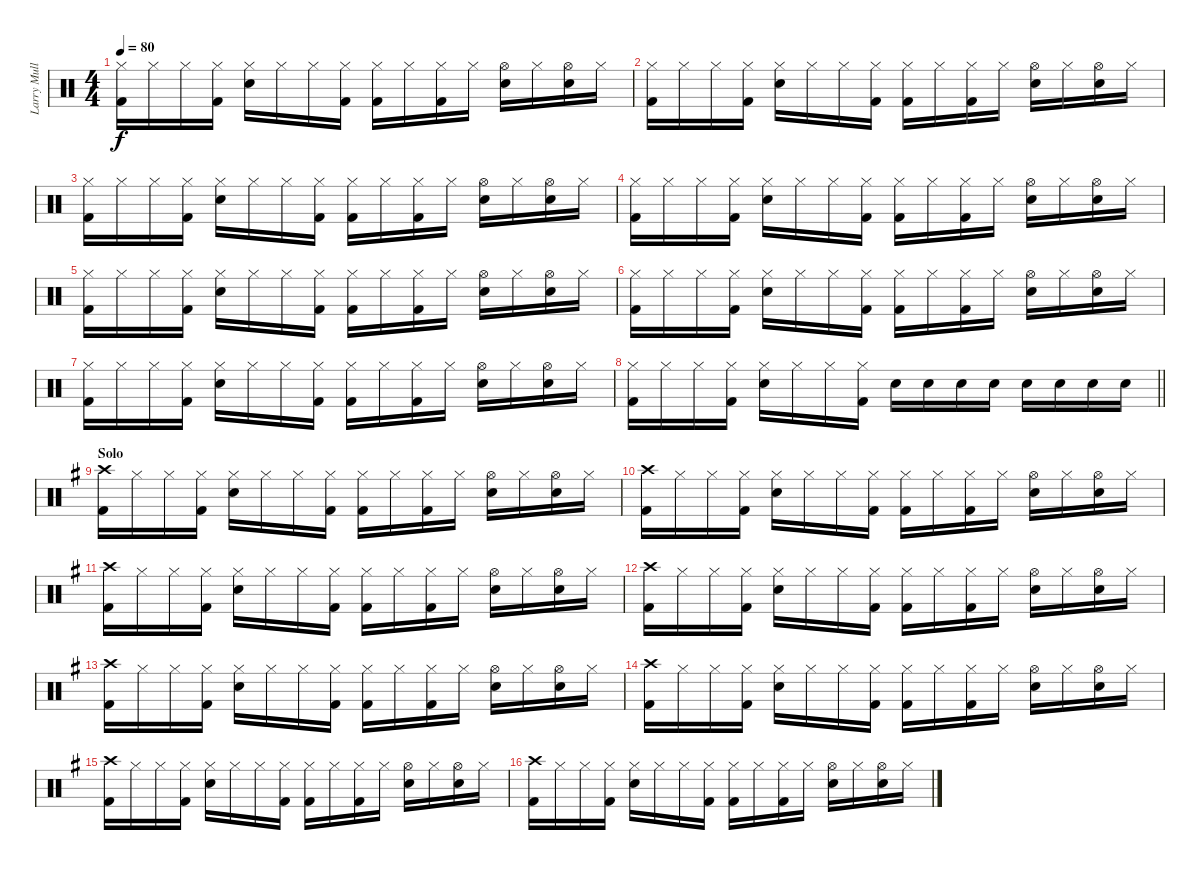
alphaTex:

\track ("Larry Mullen Jr" "Larry Mull") {instrument percussion}
\staff {score}
\articulation defaults
\ts (4 4)
\tempo 80
\clef neutral
\ks c
("Hi-Hat (closed)" "Kick (hit) 2").16{dy f} "Hi-Hat (closed)".16 "Hi-Hat (closed)".16 ("Hi-Hat (closed)" "Kick (hit) 2").16 ("Hi-Hat (closed)" "Snare (hit) 2").16 "Hi-Hat (closed)".16 "Hi-Hat (closed)".16 ("Hi-Hat (closed)" "Kick (hit) 2").16 ("Hi-Hat (closed)" "Kick (hit) 2").16 "Hi-Hat (closed)".16 ("Hi-Hat (closed)" "Kick (hit) 2").16 "Hi-Hat (closed)".16 ("Hi-Hat (open)" "Snare (hit) 2").16 "Hi-Hat (closed)".16 ("Hi-Hat (open)" "Snare (hit) 2").16 "Hi-Hat (closed)".16 |
("Hi-Hat (closed)" "Kick (hit) 2").16 "Hi-Hat (closed)".16 "Hi-Hat (closed)".16 ("Hi-Hat (closed)" "Kick (hit) 2").16 ("Hi-Hat (closed)" "Snare (hit) 2").16 "Hi-Hat (closed)".16 "Hi-Hat (closed)".16 ("Hi-Hat (closed)" "Kick (hit) 2").16 ("Hi-Hat (closed)" "Kick (hit) 2").16 "Hi-Hat (closed)".16 ("Hi-Hat (closed)" "Kick (hit) 2").16 "Hi-Hat (closed)".16 ("Hi-Hat (open)" "Snare (hit) 2").16 "Hi-Hat (closed)".16 ("Hi-Hat (open)" "Snare (hit) 2").16 "Hi-Hat (closed)".16 |
("Hi-Hat (closed)" "Kick (hit) 2").16 "Hi-Hat (closed)".16 "Hi-Hat (closed)".16 ("Hi-Hat (closed)" "Kick (hit) 2").16 ("Hi-Hat (closed)" "Snare (hit) 2").16 "Hi-Hat (closed)".16 "Hi-Hat (closed)".16 ("Hi-Hat (closed)" "Kick (hit) 2").16 ("Hi-Hat (closed)" "Kick (hit) 2").16 "Hi-Hat (closed)".16 ("Hi-Hat (closed)" "Kick (hit) 2").16 "Hi-Hat (closed)".16 ("Hi-Hat (open)" "Snare (hit) 2").16 "Hi-Hat (closed)".16 ("Hi-Hat (open)" "Snare (hit) 2").16 "Hi-Hat (closed)".16 |
("Hi-Hat (closed)" "Kick (hit) 2").16 "Hi-Hat (closed)".16 "Hi-Hat (closed)".16 ("Hi-Hat (closed)" "Kick (hit) 2").16 ("Hi-Hat (closed)" "Snare (hit) 2").16 "Hi-Hat (closed)".16 "Hi-Hat (closed)".16 ("Hi-Hat (closed)" "Kick (hit) 2").16 ("Hi-Hat (closed)" "Kick (hit) 2").16 "Hi-Hat (closed)".16 ("Hi-Hat (closed)" "Kick (hit) 2").16 "Hi-Hat (closed)".16 ("Hi-Hat (open)" "Snare (hit) 2").16 "Hi-Hat (closed)".16 ("Hi-Hat (open)" "Snare (hit) 2").16 "Hi-Hat (closed)".16 |
("Hi-Hat (closed)" "Kick (hit) 2").16 "Hi-Hat (closed)".16 "Hi-Hat (closed)".16 ("Hi-Hat (closed)" "Kick (hit) 2").16 ("Hi-Hat (closed)" "Snare (hit) 2").16 "Hi-Hat (closed)".16 "Hi-Hat (closed)".16 ("Hi-Hat (closed)" "Kick (hit) 2").16 ("Hi-Hat (closed)" "Kick (hit) 2").16 "Hi-Hat (closed)".16 ("Hi-Hat (closed)" "Kick (hit) 2").16 "Hi-Hat (closed)".16 ("Hi-Hat (open)" "Snare (hit) 2").16 "Hi-Hat (closed)".16 ("Hi-Hat (open)" "Snare (hit) 2").16 "Hi-Hat (closed)".16 |
("Hi-Hat (closed)" "Kick (hit) 2").16 "Hi-Hat (closed)".16 "Hi-Hat (closed)".16 ("Hi-Hat (closed)" "Kick (hit) 2").16 ("Hi-Hat (closed)" "Snare (hit) 2").16 "Hi-Hat (closed)".16 "Hi-Hat (closed)".16 ("Hi-Hat (closed)" "Kick (hit) 2").16 ("Hi-Hat (closed)" "Kick (hit) 2").16 "Hi-Hat (closed)".16 ("Hi-Hat (closed)" "Kick (hit) 2").16 "Hi-Hat (closed)".16 ("Hi-Hat (open)" "Snare (hit) 2").16 "Hi-Hat (closed)".16 ("Hi-Hat (open)" "Snare (hit) 2").16 "Hi-Hat (closed)".16 |
("Hi-Hat (closed)" "Kick (hit) 2").16 "Hi-Hat (closed)".16 "Hi-Hat (closed)".16 ("Hi-Hat (closed)" "Kick (hit) 2").16 ("Hi-Hat (closed)" "Snare (hit) 2").16 "Hi-Hat (closed)".16 "Hi-Hat (closed)".16 ("Hi-Hat (closed)" "Kick (hit) 2").16 ("Hi-Hat (closed)" "Kick (hit) 2").16 "Hi-Hat (closed)".16 ("Hi-Hat (closed)" "Kick (hit) 2").16 "Hi-Hat (closed)".16 ("Hi-Hat (open)" "Snare (hit) 2").16 "Hi-Hat (closed)".16 ("Hi-Hat (open)" "Snare (hit) 2").16 "Hi-Hat (closed)".16 |
\barLineRight lightlight
("Hi-Hat (closed)" "Kick (hit) 2").16 "Hi-Hat (closed)".16 "Hi-Hat (closed)".16 ("Hi-Hat (closed)" "Kick (hit) 2").16 ("Hi-Hat (closed)" "Snare (hit) 2").16 "Hi-Hat (closed)".16 "Hi-Hat (closed)".16 ("Hi-Hat (closed)" "Kick (hit) 2").16 "Snare (hit) 2".16 "Snare (hit) 2".16 "Snare (hit) 2".16 "Snare (hit) 2".16 "Snare (hit) 2".16 "Snare (hit) 2".16 "Snare (hit) 2".16 "Snare (hit) 2".16 |
\section ("" "Solo")
\ks g
("Crash high (hit)" "Kick (hit) 2").16 "Hi-Hat (closed)".16 "Hi-Hat (closed)".16 ("Hi-Hat (closed)" "Kick (hit) 2").16 ("Hi-Hat (closed)" "Snare (hit) 2").16 "Hi-Hat (closed)".16 "Hi-Hat (closed)".16 ("Hi-Hat (closed)" "Kick (hit) 2").16 ("Hi-Hat (closed)" "Kick (hit) 2").16 "Hi-Hat (closed)".16 ("Hi-Hat (closed)" "Kick (hit) 2").16 "Hi-Hat (closed)".16 ("Hi-Hat (open)" "Snare (hit) 2").16 "Hi-Hat (closed)".16 ("Hi-Hat (open)" "Snare (hit) 2").16 "Hi-Hat (closed)".16 |
("Crash high (hit)" "Kick (hit) 2").16 "Hi-Hat (closed)".16 "Hi-Hat (closed)".16 ("Hi-Hat (closed)" "Kick (hit) 2").16 ("Hi-Hat (closed)" "Snare (hit) 2").16 "Hi-Hat (closed)".16 "Hi-Hat (closed)".16 ("Hi-Hat (closed)" "Kick (hit) 2").16 ("Hi-Hat (closed)" "Kick (hit) 2").16 "Hi-Hat (closed)".16 ("Hi-Hat (closed)" "Kick (hit) 2").16 "Hi-Hat (closed)".16 ("Hi-Hat (open)" "Snare (hit) 2").16 "Hi-Hat (closed)".16 ("Hi-Hat (open)" "Snare (hit) 2").16 "Hi-Hat (closed)".16 |
("Crash high (hit)" "Kick (hit) 2").16 "Hi-Hat (closed)".16 "Hi-Hat (closed)".16 ("Hi-Hat (closed)" "Kick (hit) 2").16 ("Hi-Hat (closed)" "Snare (hit) 2").16 "Hi-Hat (closed)".16 "Hi-Hat (closed)".16 ("Hi-Hat (closed)" "Kick (hit) 2").16 ("Hi-Hat (closed)" "Kick (hit) 2").16 "Hi-Hat (closed)".16 ("Hi-Hat (closed)" "Kick (hit) 2").16 "Hi-Hat (closed)".16 ("Hi-Hat (open)" "Snare (hit) 2").16 "Hi-Hat (closed)".16 ("Hi-Hat (open)" "Snare (hit) 2").16 "Hi-Hat (closed)".16 |
("Crash high (hit)" "Kick (hit) 2").16 "Hi-Hat (closed)".16 "Hi-Hat (closed)".16 ("Hi-Hat (closed)" "Kick (hit) 2").16 ("Hi-Hat (closed)" "Snare (hit) 2").16 "Hi-Hat (closed)".16 "Hi-Hat (closed)".16 ("Hi-Hat (closed)" "Kick (hit) 2").16 ("Hi-Hat (closed)" "Kick (hit) 2").16 "Hi-Hat (closed)".16 ("Hi-Hat (closed)" "Kick (hit) 2").16 "Hi-Hat (closed)".16 ("Hi-Hat (open)" "Snare (hit) 2").16 "Hi-Hat (closed)".16 ("Hi-Hat (open)" "Snare (hit) 2").16 "Hi-Hat (closed)".16 |
("Crash high (hit)" "Kick (hit) 2").16 "Hi-Hat (closed)".16 "Hi-Hat (closed)".16 ("Hi-Hat (closed)" "Kick (hit) 2").16 ("Hi-Hat (closed)" "Snare (hit) 2").16 "Hi-Hat (closed)".16 "Hi-Hat (closed)".16 ("Hi-Hat (closed)" "Kick (hit) 2").16 ("Hi-Hat (closed)" "Kick (hit) 2").16 "Hi-Hat (closed)".16 ("Hi-Hat (closed)" "Kick (hit) 2").16 "Hi-Hat (closed)".16 ("Hi-Hat (open)" "Snare (hit) 2").16 "Hi-Hat (closed)".16 ("Hi-Hat (open)" "Snare (hit) 2").16 "Hi-Hat (closed)".16 |
("Crash high (hit)" "Kick (hit) 2").16 "Hi-Hat (closed)".16 "Hi-Hat (closed)".16 ("Hi-Hat (closed)" "Kick (hit) 2").16 ("Hi-Hat (closed)" "Snare (hit) 2").16 "Hi-Hat (closed)".16 "Hi-Hat (closed)".16 ("Hi-Hat (closed)" "Kick (hit) 2").16 ("Hi-Hat (closed)" "Kick (hit) 2").16 "Hi-Hat (closed)".16 ("Hi-Hat (closed)" "Kick (hit) 2").16 "Hi-Hat (closed)".16 ("Hi-Hat (open)" "Snare (hit) 2").16 "Hi-Hat (closed)".16 ("Hi-Hat (open)" "Snare (hit) 2").16 "Hi-Hat (closed)".16 |
("Crash high (hit)" "Kick (hit) 2").16 "Hi-Hat (closed)".16 "Hi-Hat (closed)".16 ("Hi-Hat (closed)" "Kick (hit) 2").16 ("Hi-Hat (closed)" "Snare (hit) 2").16 "Hi-Hat (closed)".16 "Hi-Hat (closed)".16 ("Hi-Hat (closed)" "Kick (hit) 2").16 ("Hi-Hat (closed)" "Kick (hit) 2").16 "Hi-Hat (closed)".16 ("Hi-Hat (closed)" "Kick (hit) 2").16 "Hi-Hat (closed)".16 ("Hi-Hat (open)" "Snare (hit) 2").16 "Hi-Hat (closed)".16 ("Hi-Hat (open)" "Snare (hit) 2").16 "Hi-Hat (closed)".16 |
("Crash high (hit)" "Kick (hit) 2").16 "Hi-Hat (closed)".16 "Hi-Hat (closed)".16 ("Hi-Hat (closed)" "Kick (hit) 2").16 ("Hi-Hat (closed)" "Snare (hit) 2").16 "Hi-Hat (closed)".16 "Hi-Hat (closed)".16 ("Hi-Hat (closed)" "Kick (hit) 2").16 ("Hi-Hat (closed)" "Kick (hit) 2").16 "Hi-Hat (closed)".16 ("Hi-Hat (closed)" "Kick (hit) 2").16 "Hi-Hat (closed)".16 ("Hi-Hat (open)" "Snare (hit) 2").16 "Hi-Hat (closed)".16 ("Hi-Hat (open)" "Snare (hit) 2").16 "Hi-Hat (closed)".16
